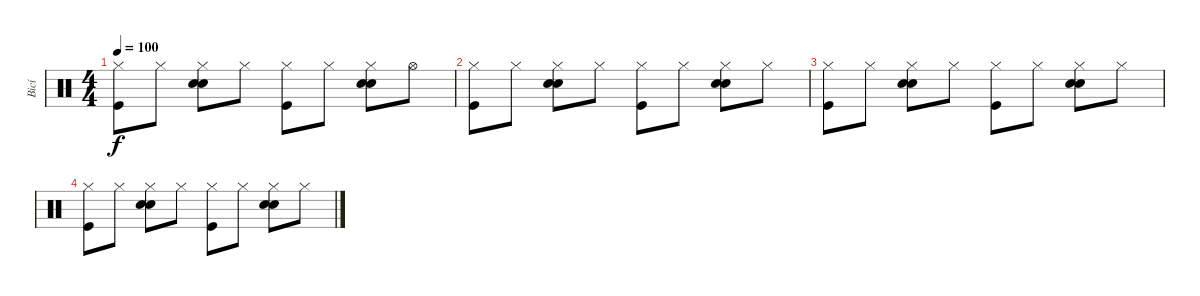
\track ("Bicí" "Bicí") {instrument percussion}
\staff {score}
\articulation defaults
\ts (4 4)
\tempo 100
\clef neutral
\ks c
("Hi-Hat (closed)" "Kick (hit)").8{dy f} "Hi-Hat (closed)".8 ("Hi-Hat (closed)" "Hand Clap (hit)" "Electric Snare (hit)").8 "Hi-Hat (closed)".8 ("Hi-Hat (closed)" "Kick (hit)").8 "Hi-Hat (closed)".8 ("Hi-Hat (closed)" "Hand Clap (hit)" "Electric Snare (hit)").8 "Hi-Hat (open)".8 |
("Hi-Hat (closed)" "Kick (hit)").8 "Hi-Hat (closed)".8 ("Hi-Hat (closed)" "Hand Clap (hit)" "Electric Snare (hit)").8 "Hi-Hat (closed)".8 ("Hi-Hat (closed)" "Kick (hit)").8 "Hi-Hat (closed)".8 ("Hi-Hat (closed)" "Hand Clap (hit)" "Electric Snare (hit)").8 "Hi-Hat (closed)".8 |
("Hi-Hat (closed)" "Kick (hit)").8 "Hi-Hat (closed)".8 ("Hi-Hat (closed)" "Hand Clap (hit)" "Electric Snare (hit)").8 "Hi-Hat (closed)".8 ("Hi-Hat (closed)" "Kick (hit)").8 "Hi-Hat (closed)".8 ("Hi-Hat (closed)" "Hand Clap (hit)" "Electric Snare (hit)").8 "Hi-Hat (closed)".8 |
("Hi-Hat (closed)" "Kick (hit)").8 "Hi-Hat (closed)".8 ("Hi-Hat (closed)" "Hand Clap (hit)" "Electric Snare (hit)").8 "Hi-Hat (closed)".8 ("Hi-Hat (closed)" "Kick (hit)").8 "Hi-Hat (closed)".8 ("Hi-Hat (closed)" "Hand Clap (hit)" "Electric Snare (hit)").8 "Hi-Hat (closed)".8
